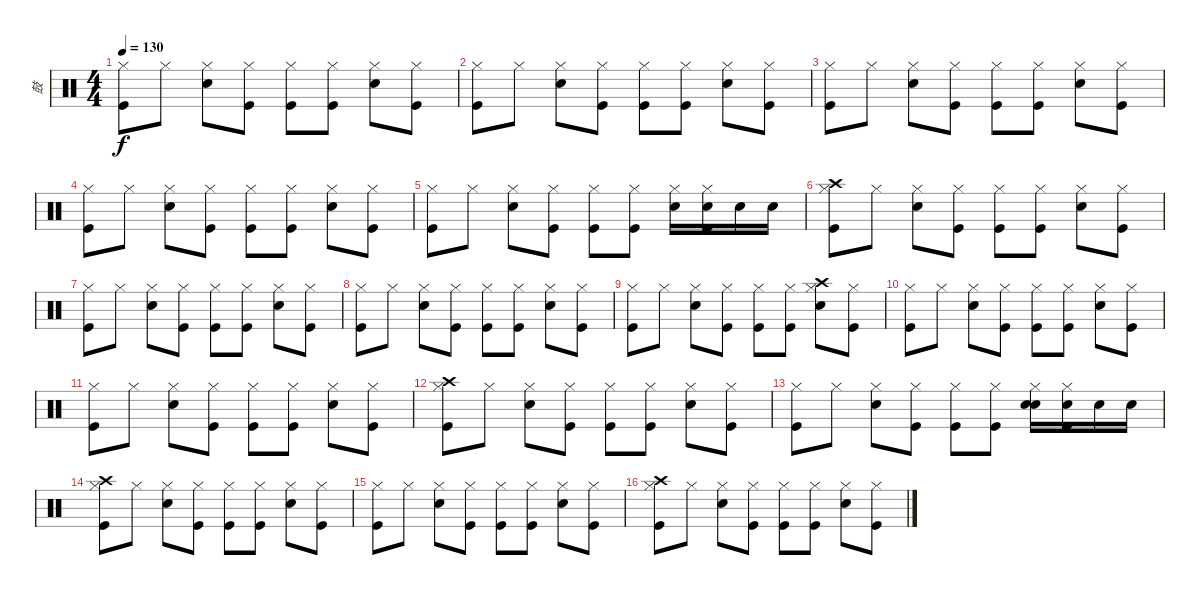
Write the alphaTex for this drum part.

\track ("鼓" "鼓") {instrument percussion}
\staff {score}
\articulation defaults
\ts (4 4)
\tempo 130
\clef neutral
\ks c
("Hi-Hat (closed)" "Kick (hit)").8{dy f} "Hi-Hat (closed)".8 ("Hi-Hat (closed)" "Snare (hit) 2").8 ("Hi-Hat (closed)" "Kick (hit)").8 ("Hi-Hat (closed)" "Kick (hit)").8 ("Hi-Hat (closed)" "Kick (hit)").8 ("Hi-Hat (closed)" "Snare (hit) 2").8 ("Hi-Hat (closed)" "Kick (hit)").8 |
("Hi-Hat (closed)" "Kick (hit)").8 "Hi-Hat (closed)".8 ("Hi-Hat (closed)" "Snare (hit) 2").8 ("Hi-Hat (closed)" "Kick (hit)").8 ("Hi-Hat (closed)" "Kick (hit)").8 ("Hi-Hat (closed)" "Kick (hit)").8 ("Hi-Hat (closed)" "Snare (hit) 2").8 ("Hi-Hat (closed)" "Kick (hit)").8 |
("Hi-Hat (closed)" "Kick (hit)").8 "Hi-Hat (closed)".8 ("Hi-Hat (closed)" "Snare (hit) 2").8 ("Hi-Hat (closed)" "Kick (hit)").8 ("Hi-Hat (closed)" "Kick (hit)").8 ("Hi-Hat (closed)" "Kick (hit)").8 ("Hi-Hat (closed)" "Snare (hit) 2").8 ("Hi-Hat (closed)" "Kick (hit)").8 |
("Hi-Hat (closed)" "Kick (hit)").8 "Hi-Hat (closed)".8 ("Hi-Hat (closed)" "Snare (hit) 2").8 ("Hi-Hat (closed)" "Kick (hit)").8 ("Hi-Hat (closed)" "Kick (hit)").8 ("Hi-Hat (closed)" "Kick (hit)").8 ("Hi-Hat (closed)" "Snare (hit) 2").8 ("Hi-Hat (closed)" "Kick (hit)").8 |
("Hi-Hat (closed)" "Kick (hit)").8 "Hi-Hat (closed)".8 ("Hi-Hat (closed)" "Snare (hit) 2").8 ("Hi-Hat (closed)" "Kick (hit)").8 ("Hi-Hat (closed)" "Kick (hit)").8 ("Hi-Hat (closed)" "Kick (hit)").8 ("Hi-Hat (closed)" "Snare (hit) 2").16 ("Hi-Hat (closed)" "Snare (hit) 2" "Kick (hit)").16 "Snare (hit) 2".16 "Snare (hit) 2".16 |
("Crash high (hit)" "Hi-Hat (closed)" "Kick (hit)").8 "Hi-Hat (closed)".8 ("Hi-Hat (closed)" "Snare (hit) 2").8 ("Hi-Hat (closed)" "Kick (hit)").8 ("Hi-Hat (closed)" "Kick (hit)").8 ("Hi-Hat (closed)" "Kick (hit)").8 ("Hi-Hat (closed)" "Snare (hit) 2").8 ("Hi-Hat (closed)" "Kick (hit)").8 |
("Hi-Hat (closed)" "Kick (hit)").8 "Hi-Hat (closed)".8 ("Hi-Hat (closed)" "Snare (hit) 2").8 ("Hi-Hat (closed)" "Kick (hit)").8 ("Hi-Hat (closed)" "Kick (hit)").8 ("Hi-Hat (closed)" "Kick (hit)").8 ("Hi-Hat (closed)" "Snare (hit) 2").8 ("Hi-Hat (closed)" "Kick (hit)").8 |
("Hi-Hat (closed)" "Kick (hit)").8 "Hi-Hat (closed)".8 ("Hi-Hat (closed)" "Snare (hit) 2").8 ("Hi-Hat (closed)" "Kick (hit)").8 ("Hi-Hat (closed)" "Kick (hit)").8 ("Hi-Hat (closed)" "Kick (hit)").8 ("Hi-Hat (closed)" "Snare (hit) 2").8 ("Hi-Hat (closed)" "Kick (hit)").8 |
("Hi-Hat (closed)" "Kick (hit)").8 "Hi-Hat (closed)".8 ("Hi-Hat (closed)" "Snare (hit) 2").8 ("Hi-Hat (closed)" "Kick (hit)").8 ("Hi-Hat (closed)" "Kick (hit)").8 ("Hi-Hat (closed)" "Kick (hit)").8 ("Crash high (hit)" "Hi-Hat (closed)" "Snare (hit) 2").8 ("Hi-Hat (closed)" "Kick (hit)").8 |
("Hi-Hat (closed)" "Kick (hit)").8 "Hi-Hat (closed)".8 ("Hi-Hat (closed)" "Snare (hit) 2").8 ("Hi-Hat (closed)" "Kick (hit)").8 ("Hi-Hat (closed)" "Kick (hit)").8 ("Hi-Hat (closed)" "Kick (hit)").8 ("Hi-Hat (closed)" "Snare (hit) 2").8 ("Hi-Hat (closed)" "Kick (hit)").8 |
("Hi-Hat (closed)" "Kick (hit)").8 "Hi-Hat (closed)".8 ("Hi-Hat (closed)" "Snare (hit) 2").8 ("Hi-Hat (closed)" "Kick (hit)").8 ("Hi-Hat (closed)" "Kick (hit)").8 ("Hi-Hat (closed)" "Kick (hit)").8 ("Hi-Hat (closed)" "Snare (hit) 2").8 ("Hi-Hat (closed)" "Kick (hit)").8 |
("Crash high (hit)" "Hi-Hat (closed)" "Kick (hit)").8 "Hi-Hat (closed)".8 ("Hi-Hat (closed)" "Snare (hit) 2").8 ("Hi-Hat (closed)" "Kick (hit)").8 ("Hi-Hat (closed)" "Kick (hit)").8 ("Hi-Hat (closed)" "Kick (hit)").8 ("Hi-Hat (closed)" "Snare (hit) 2").8 ("Hi-Hat (closed)" "Kick (hit)").8 |
("Hi-Hat (closed)" "Kick (hit)").8 "Hi-Hat (closed)".8 ("Hi-Hat (closed)" "Snare (hit) 2").8 ("Hi-Hat (closed)" "Kick (hit)").8 ("Hi-Hat (closed)" "Kick (hit)").8 ("Hi-Hat (closed)" "Kick (hit)").8 ("Hi-Hat (closed)" "Snare (hit) 2" "Snare (hit) 2").16 ("Hi-Hat (closed)" "Snare (hit) 2" "Kick (hit)").16 "Snare (hit) 2".16 "Snare (hit) 2".16 |
("Crash high (hit)" "Hi-Hat (closed)" "Kick (hit)").8 "Hi-Hat (closed)".8 ("Hi-Hat (closed)" "Snare (hit) 2").8 ("Hi-Hat (closed)" "Kick (hit)").8 ("Hi-Hat (closed)" "Kick (hit)").8 ("Hi-Hat (closed)" "Kick (hit)").8 ("Hi-Hat (closed)" "Snare (hit) 2").8 ("Hi-Hat (closed)" "Kick (hit)").8 |
("Hi-Hat (closed)" "Kick (hit)").8 "Hi-Hat (closed)".8 ("Hi-Hat (closed)" "Snare (hit) 2").8 ("Hi-Hat (closed)" "Kick (hit)").8 ("Hi-Hat (closed)" "Kick (hit)").8 ("Hi-Hat (closed)" "Kick (hit)").8 ("Hi-Hat (closed)" "Snare (hit) 2").8 ("Hi-Hat (closed)" "Kick (hit)").8 |
("Crash high (hit)" "Hi-Hat (closed)" "Kick (hit)").8 "Hi-Hat (closed)".8 ("Hi-Hat (closed)" "Snare (hit) 2").8 ("Hi-Hat (closed)" "Kick (hit)").8 ("Hi-Hat (closed)" "Kick (hit)").8 ("Hi-Hat (closed)" "Kick (hit)").8 ("Hi-Hat (closed)" "Snare (hit) 2").8 ("Hi-Hat (closed)" "Kick (hit)").8
